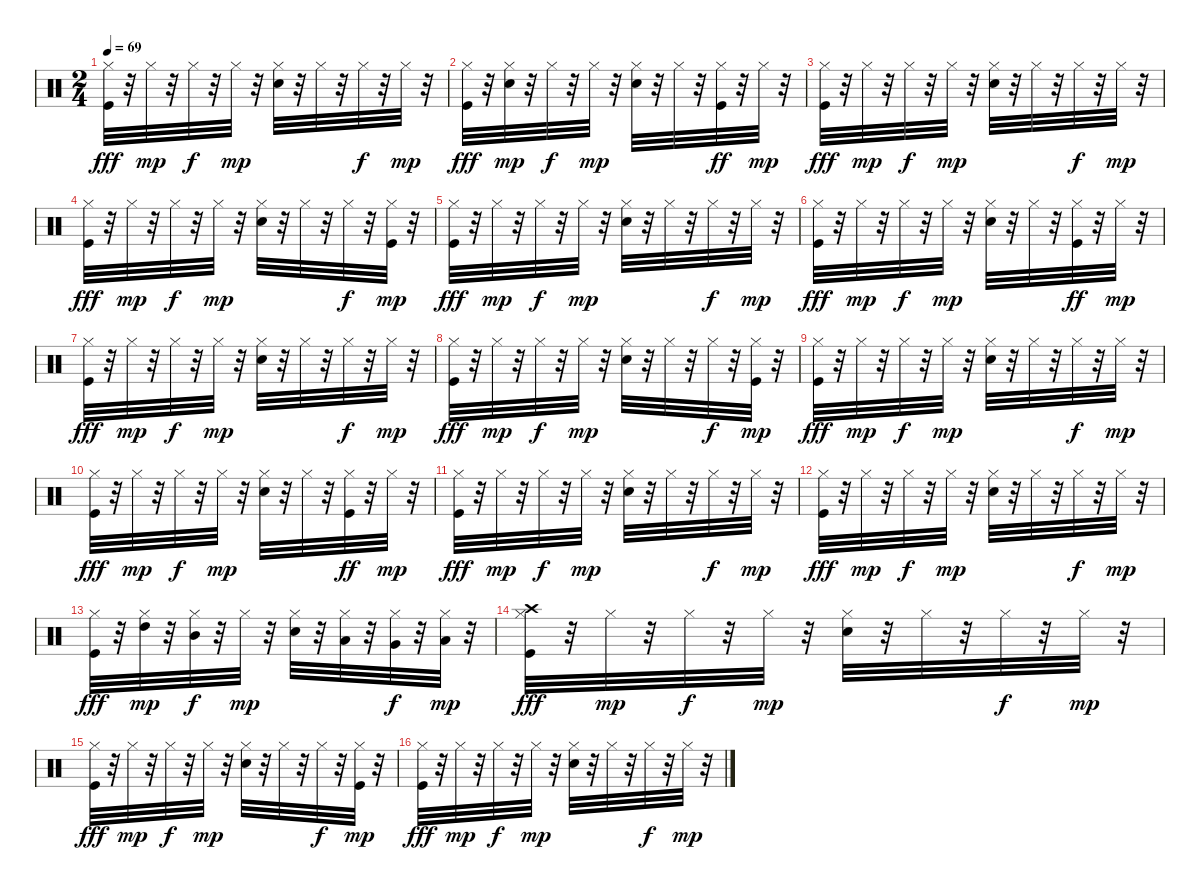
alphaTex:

\track "" {instrument percussion}
\staff {score}
\articulation defaults
\ts (2 4)
\tempo 69
\clef neutral
\ks c
("Hi-Hat (closed)" "Kick (hit)").32{dy fff} r.32 "Hi-Hat (closed)".32{dy mp} r.32 "Hi-Hat (closed)".32{dy f} r.32 "Hi-Hat (closed)".32{dy mp} r.32 ("Metronome (bell)" "Hi-Hat (closed)").32 r.32 "Hi-Hat (closed)".32 r.32 "Hi-Hat (closed)".32{dy f} r.32 "Hi-Hat (closed)".32{dy mp} r.32 |
("Kick (hit)" "Hi-Hat (closed)").32{dy fff} r.32 ("Hi-Hat (closed)" "Metronome (bell)").32{dy mp} r.32 "Hi-Hat (closed)".32{dy f} r.32 "Hi-Hat (closed)".32{dy mp} r.32 ("Metronome (bell)" "Hi-Hat (closed)").32 r.32 "Hi-Hat (closed)".32 r.32 ("Hi-Hat (closed)" "Kick (hit)").32{dy ff} r.32 "Hi-Hat (closed)".32{dy mp} r.32 |
("Hi-Hat (closed)" "Kick (hit)").32{dy fff} r.32 "Hi-Hat (closed)".32{dy mp} r.32 "Hi-Hat (closed)".32{dy f} r.32 "Hi-Hat (closed)".32{dy mp} r.32 ("Metronome (bell)" "Hi-Hat (closed)").32 r.32 "Hi-Hat (closed)".32 r.32 "Hi-Hat (closed)".32{dy f} r.32 "Hi-Hat (closed)".32{dy mp} r.32 |
("Kick (hit)" "Hi-Hat (closed)").32{dy fff} r.32 "Hi-Hat (closed)".32{dy mp} r.32 "Hi-Hat (closed)".32{dy f} r.32 "Hi-Hat (closed)".32{dy mp} r.32 ("Metronome (bell)" "Hi-Hat (closed)").32 r.32 "Hi-Hat (closed)".32 r.32 "Hi-Hat (closed)".32{dy f} r.32 ("Kick (hit)" "Hi-Hat (closed)").32{dy mp} r.32 |
("Hi-Hat (closed)" "Kick (hit)").32{dy fff} r.32 "Hi-Hat (closed)".32{dy mp} r.32 "Hi-Hat (closed)".32{dy f} r.32 "Hi-Hat (closed)".32{dy mp} r.32 ("Metronome (bell)" "Hi-Hat (closed)").32 r.32 "Hi-Hat (closed)".32 r.32 "Hi-Hat (closed)".32{dy f} r.32 "Hi-Hat (closed)".32{dy mp} r.32 |
("Kick (hit)" "Hi-Hat (closed)").32{dy fff} r.32 "Hi-Hat (closed)".32{dy mp} r.32 "Hi-Hat (closed)".32{dy f} r.32 "Hi-Hat (closed)".32{dy mp} r.32 ("Metronome (bell)" "Hi-Hat (closed)").32 r.32 "Hi-Hat (closed)".32 r.32 ("Hi-Hat (closed)" "Kick (hit)").32{dy ff} r.32 "Hi-Hat (closed)".32{dy mp} r.32 |
("Hi-Hat (closed)" "Kick (hit)").32{dy fff} r.32 "Hi-Hat (closed)".32{dy mp} r.32 "Hi-Hat (closed)".32{dy f} r.32 "Hi-Hat (closed)".32{dy mp} r.32 ("Metronome (bell)" "Hi-Hat (closed)").32 r.32 "Hi-Hat (closed)".32 r.32 "Hi-Hat (closed)".32{dy f} r.32 "Hi-Hat (closed)".32{dy mp} r.32 |
("Kick (hit)" "Hi-Hat (closed)").32{dy fff} r.32 "Hi-Hat (closed)".32{dy mp} r.32 "Hi-Hat (closed)".32{dy f} r.32 "Hi-Hat (closed)".32{dy mp} r.32 ("Metronome (bell)" "Hi-Hat (closed)").32 r.32 "Hi-Hat (closed)".32 r.32 "Hi-Hat (closed)".32{dy f} r.32 ("Kick (hit)" "Hi-Hat (closed)").32{dy mp} r.32 |
("Hi-Hat (closed)" "Kick (hit)").32{dy fff} r.32 "Hi-Hat (closed)".32{dy mp} r.32 "Hi-Hat (closed)".32{dy f} r.32 "Hi-Hat (closed)".32{dy mp} r.32 ("Metronome (bell)" "Hi-Hat (closed)").32 r.32 "Hi-Hat (closed)".32 r.32 "Hi-Hat (closed)".32{dy f} r.32 "Hi-Hat (closed)".32{dy mp} r.32 |
("Kick (hit)" "Hi-Hat (closed)").32{dy fff} r.32 "Hi-Hat (closed)".32{dy mp} r.32 "Hi-Hat (closed)".32{dy f} r.32 "Hi-Hat (closed)".32{dy mp} r.32 ("Metronome (bell)" "Hi-Hat (closed)").32 r.32 "Hi-Hat (closed)".32 r.32 ("Hi-Hat (closed)" "Kick (hit)").32{dy ff} r.32 "Hi-Hat (closed)".32{dy mp} r.32 |
("Hi-Hat (closed)" "Kick (hit)").32{dy fff} r.32 "Hi-Hat (closed)".32{dy mp} r.32 "Hi-Hat (closed)".32{dy f} r.32 "Hi-Hat (closed)".32{dy mp} r.32 ("Metronome (bell)" "Hi-Hat (closed)").32 r.32 "Hi-Hat (closed)".32 r.32 "Hi-Hat (closed)".32{dy f} r.32 "Hi-Hat (closed)".32{dy mp} r.32 |
("Kick (hit)" "Hi-Hat (closed)").32{dy fff} r.32 "Hi-Hat (closed)".32{dy mp} r.32 "Hi-Hat (closed)".32{dy f} r.32 "Hi-Hat (closed)".32{dy mp} r.32 ("Metronome (bell)" "Hi-Hat (closed)").32 r.32 "Hi-Hat (closed)".32 r.32 "Hi-Hat (closed)".32{dy f} r.32 "Hi-Hat (closed)".32{dy mp} r.32 |
("Kick (hit)" "Hi-Hat (closed)").32{dy fff} r.32 ("Hi-Hat (closed)" "High Tom (hit)").32{dy mp} r.32 ("Hi-Hat (closed)" "Mid Tom (hit)").32{dy f} r.32 "Hi-Hat (closed)".32{dy mp} r.32 ("Metronome (bell)" "Hi-Hat (closed)").32 r.32 ("Low Tom (hit)" "Hi-Hat (closed)").32 r.32 ("Very Low Tom (hit)" "Hi-Hat (closed)").32{dy f} r.32 ("Low Floor Tom (hit)" "Hi-Hat (closed)").32{dy mp} r.32 |
("Crash high (hit)" "Hi-Hat (closed)" "Kick (hit)").32{dy fff} r.32 "Hi-Hat (closed)".32{dy mp} r.32 "Hi-Hat (closed)".32{dy f} r.32 "Hi-Hat (closed)".32{dy mp} r.32 ("Metronome (bell)" "Hi-Hat (closed)").32 r.32 "Hi-Hat (closed)".32 r.32 "Hi-Hat (closed)".32{dy f} r.32 "Hi-Hat (closed)".32{dy mp} r.32 |
("Kick (hit)" "Hi-Hat (closed)").32{dy fff} r.32 "Hi-Hat (closed)".32{dy mp} r.32 "Hi-Hat (closed)".32{dy f} r.32 "Hi-Hat (closed)".32{dy mp} r.32 ("Metronome (bell)" "Hi-Hat (closed)").32 r.32 "Hi-Hat (closed)".32 r.32 "Hi-Hat (closed)".32{dy f} r.32 ("Kick (hit)" "Hi-Hat (closed)").32{dy mp} r.32 |
("Hi-Hat (closed)" "Kick (hit)").32{dy fff} r.32 "Hi-Hat (closed)".32{dy mp} r.32 "Hi-Hat (closed)".32{dy f} r.32 "Hi-Hat (closed)".32{dy mp} r.32 ("Metronome (bell)" "Hi-Hat (closed)").32 r.32 "Hi-Hat (closed)".32 r.32 "Hi-Hat (closed)".32{dy f} r.32 "Hi-Hat (closed)".32{dy mp} r.32
